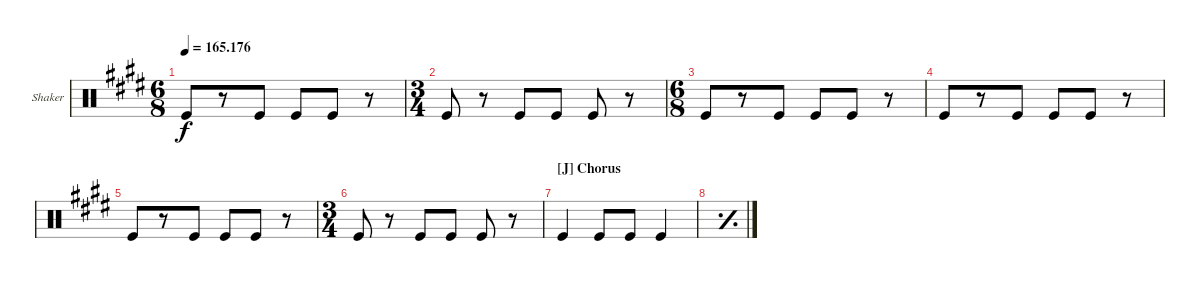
\defaultSystemsLayout 4
\bracketExtendMode groupsimilarinstruments
\firstSystemTrackNameOrientation horizontal
\otherSystemsTrackNameOrientation horizontal
\track ("Shaker 2" "Shaker") {multiBarRest instrument percussion}
\staff {score}
\articulation defaults
\ts (6 8)
\tempo
165.176
\accidentals auto
\clef neutral
\ottava regular
\simile none
\ks e "Kick (hit)".8{dy f}
r.8 "Kick (hit)".8 "Kick (hit)".8 "Kick (hit)".8 r.8 |
\ts (3 4)
"Kick (hit)".8 r.8 "Kick (hit)".8 "Kick (hit)".8 "Kick (hit)".8 r.8 |
\ts (6 8)
"Kick (hit)".8 r.8 "Kick (hit)".8 "Kick (hit)".8 "Kick (hit)".8 r.8 |
"Kick (hit)".8 r.8 "Kick (hit)".8 "Kick (hit)".8 "Kick (hit)".8 r.8 |
"Kick (hit)".8 r.8 "Kick (hit)".8 "Kick (hit)".8 "Kick (hit)".8 r.8 |
\ts (3 4)
"Kick (hit)".8 r.8 "Kick (hit)".8 "Kick (hit)".8 "Kick (hit)".8 r.8 |
\section ("J" "Chorus")
"Kick (hit)".4 "Kick (hit)".8 "Kick (hit)".8 "Kick (hit)".4 |
\simile simple
